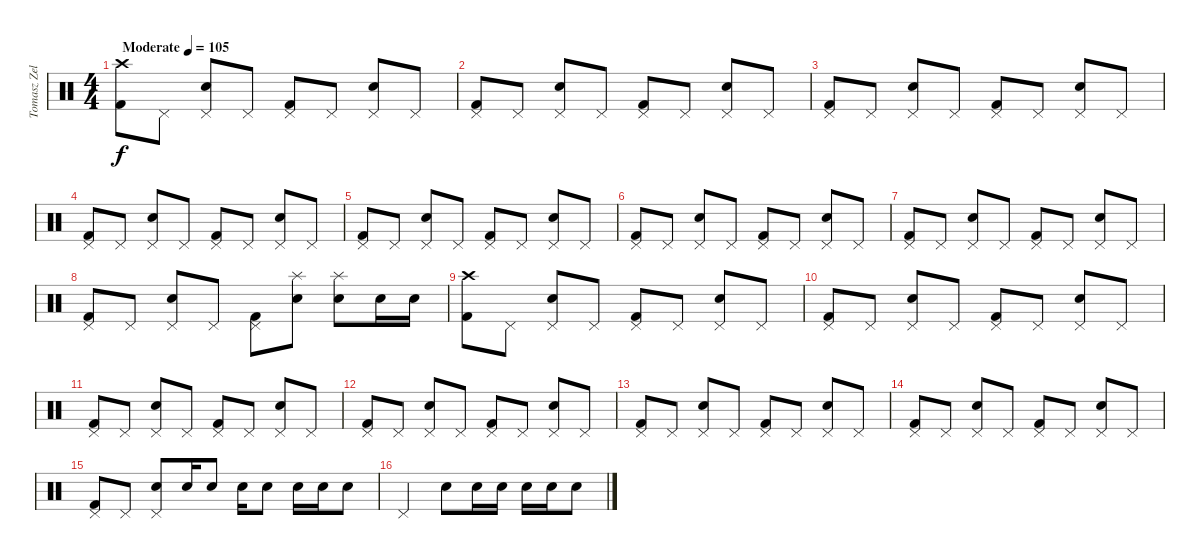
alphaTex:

\track ("Tomasz Zeliszewski" "Tomasz Zel") {instrument percussion}
\staff {score}
\articulation defaults
\ts (4 4)
\tempo (105 "Moderate")
\clef neutral
\ks c
("Crash high (hit)" "Kick (hit) 2").8{dy f} "Pedal Hi-Hat (hit)".8 ("Pedal Hi-Hat (hit)" "Snare (hit) 2").8 "Pedal Hi-Hat (hit)".8 ("Pedal Hi-Hat (hit)" "Kick (hit) 2").8 "Pedal Hi-Hat (hit)".8 ("Pedal Hi-Hat (hit)" "Snare (hit) 2").8 "Pedal Hi-Hat (hit)".8 |
("Pedal Hi-Hat (hit)" "Kick (hit) 2").8 "Pedal Hi-Hat (hit)".8 ("Pedal Hi-Hat (hit)" "Snare (hit) 2").8 "Pedal Hi-Hat (hit)".8 ("Pedal Hi-Hat (hit)" "Kick (hit) 2").8 "Pedal Hi-Hat (hit)".8 ("Pedal Hi-Hat (hit)" "Snare (hit) 2").8 "Pedal Hi-Hat (hit)".8 |
("Pedal Hi-Hat (hit)" "Kick (hit) 2").8 "Pedal Hi-Hat (hit)".8 ("Pedal Hi-Hat (hit)" "Snare (hit) 2").8 "Pedal Hi-Hat (hit)".8 ("Pedal Hi-Hat (hit)" "Kick (hit) 2").8 "Pedal Hi-Hat (hit)".8 ("Pedal Hi-Hat (hit)" "Snare (hit) 2").8 "Pedal Hi-Hat (hit)".8 |
("Pedal Hi-Hat (hit)" "Kick (hit) 2").8 "Pedal Hi-Hat (hit)".8 ("Pedal Hi-Hat (hit)" "Snare (hit) 2").8 "Pedal Hi-Hat (hit)".8 ("Pedal Hi-Hat (hit)" "Kick (hit) 2").8 "Pedal Hi-Hat (hit)".8 ("Pedal Hi-Hat (hit)" "Snare (hit) 2").8 "Pedal Hi-Hat (hit)".8 |
("Pedal Hi-Hat (hit)" "Kick (hit) 2").8 "Pedal Hi-Hat (hit)".8 ("Pedal Hi-Hat (hit)" "Snare (hit) 2").8 "Pedal Hi-Hat (hit)".8 ("Pedal Hi-Hat (hit)" "Kick (hit) 2").8 "Pedal Hi-Hat (hit)".8 ("Pedal Hi-Hat (hit)" "Snare (hit) 2").8 "Pedal Hi-Hat (hit)".8 |
("Pedal Hi-Hat (hit)" "Kick (hit) 2").8 "Pedal Hi-Hat (hit)".8 ("Pedal Hi-Hat (hit)" "Snare (hit) 2").8 "Pedal Hi-Hat (hit)".8 ("Pedal Hi-Hat (hit)" "Kick (hit) 2").8 "Pedal Hi-Hat (hit)".8 ("Pedal Hi-Hat (hit)" "Snare (hit) 2").8 "Pedal Hi-Hat (hit)".8 |
("Pedal Hi-Hat (hit)" "Kick (hit) 2").8 "Pedal Hi-Hat (hit)".8 ("Pedal Hi-Hat (hit)" "Snare (hit) 2").8 "Pedal Hi-Hat (hit)".8 ("Pedal Hi-Hat (hit)" "Kick (hit) 2").8 "Pedal Hi-Hat (hit)".8 ("Pedal Hi-Hat (hit)" "Snare (hit) 2").8 "Pedal Hi-Hat (hit)".8 |
("Pedal Hi-Hat (hit)" "Kick (hit) 2").8 "Pedal Hi-Hat (hit)".8 ("Pedal Hi-Hat (hit)" "Snare (hit) 2").8 "Pedal Hi-Hat (hit)".8 ("Pedal Hi-Hat (hit)" "Kick (hit) 2").8 ("Splash (hit)" "Snare (hit) 2").8 ("Splash (hit)" "Snare (hit) 2").8 "Snare (hit) 2".16 "Snare (hit) 2".16 |
("Crash high (hit)" "Kick (hit) 2").8 "Pedal Hi-Hat (hit)".8 ("Pedal Hi-Hat (hit)" "Snare (hit) 2").8 "Pedal Hi-Hat (hit)".8 ("Pedal Hi-Hat (hit)" "Kick (hit) 2").8 "Pedal Hi-Hat (hit)".8 ("Pedal Hi-Hat (hit)" "Snare (hit) 2").8 "Pedal Hi-Hat (hit)".8 |
("Pedal Hi-Hat (hit)" "Kick (hit) 2").8 "Pedal Hi-Hat (hit)".8 ("Pedal Hi-Hat (hit)" "Snare (hit) 2").8 "Pedal Hi-Hat (hit)".8 ("Pedal Hi-Hat (hit)" "Kick (hit) 2").8 "Pedal Hi-Hat (hit)".8 ("Pedal Hi-Hat (hit)" "Snare (hit) 2").8 "Pedal Hi-Hat (hit)".8 |
("Pedal Hi-Hat (hit)" "Kick (hit) 2").8 "Pedal Hi-Hat (hit)".8 ("Pedal Hi-Hat (hit)" "Snare (hit) 2").8 "Pedal Hi-Hat (hit)".8 ("Pedal Hi-Hat (hit)" "Kick (hit) 2").8 "Pedal Hi-Hat (hit)".8 ("Pedal Hi-Hat (hit)" "Snare (hit) 2").8 "Pedal Hi-Hat (hit)".8 |
("Pedal Hi-Hat (hit)" "Kick (hit) 2").8 "Pedal Hi-Hat (hit)".8 ("Pedal Hi-Hat (hit)" "Snare (hit) 2").8 "Pedal Hi-Hat (hit)".8 ("Pedal Hi-Hat (hit)" "Kick (hit) 2").8 "Pedal Hi-Hat (hit)".8 ("Pedal Hi-Hat (hit)" "Snare (hit) 2").8 "Pedal Hi-Hat (hit)".8 |
("Pedal Hi-Hat (hit)" "Kick (hit) 2").8 "Pedal Hi-Hat (hit)".8 ("Pedal Hi-Hat (hit)" "Snare (hit) 2").8 "Pedal Hi-Hat (hit)".8 ("Pedal Hi-Hat (hit)" "Kick (hit) 2").8 "Pedal Hi-Hat (hit)".8 ("Pedal Hi-Hat (hit)" "Snare (hit) 2").8 "Pedal Hi-Hat (hit)".8 |
("Pedal Hi-Hat (hit)" "Kick (hit) 2").8 "Pedal Hi-Hat (hit)".8 ("Pedal Hi-Hat (hit)" "Snare (hit) 2").8 "Pedal Hi-Hat (hit)".8 ("Pedal Hi-Hat (hit)" "Kick (hit) 2").8 "Pedal Hi-Hat (hit)".8 ("Pedal Hi-Hat (hit)" "Snare (hit) 2").8 "Pedal Hi-Hat (hit)".8 |
("Pedal Hi-Hat (hit)" "Kick (hit) 2").8 "Pedal Hi-Hat (hit)".8 ("Pedal Hi-Hat (hit)" "Snare (hit) 2").8 "Snare (hit) 2".16 "Snare (hit) 2".8 "Snare (hit) 2".16 "Snare (hit) 2".8 "Snare (hit) 2".16 "Snare (hit) 2".16 "Snare (hit) 2".8 |
"Pedal Hi-Hat (hit)".2 "Snare (hit) 2".8 "Snare (hit) 2".16 "Snare (hit) 2".16 "Snare (hit) 2".16 "Snare (hit) 2".16 "Snare (hit) 2".8
